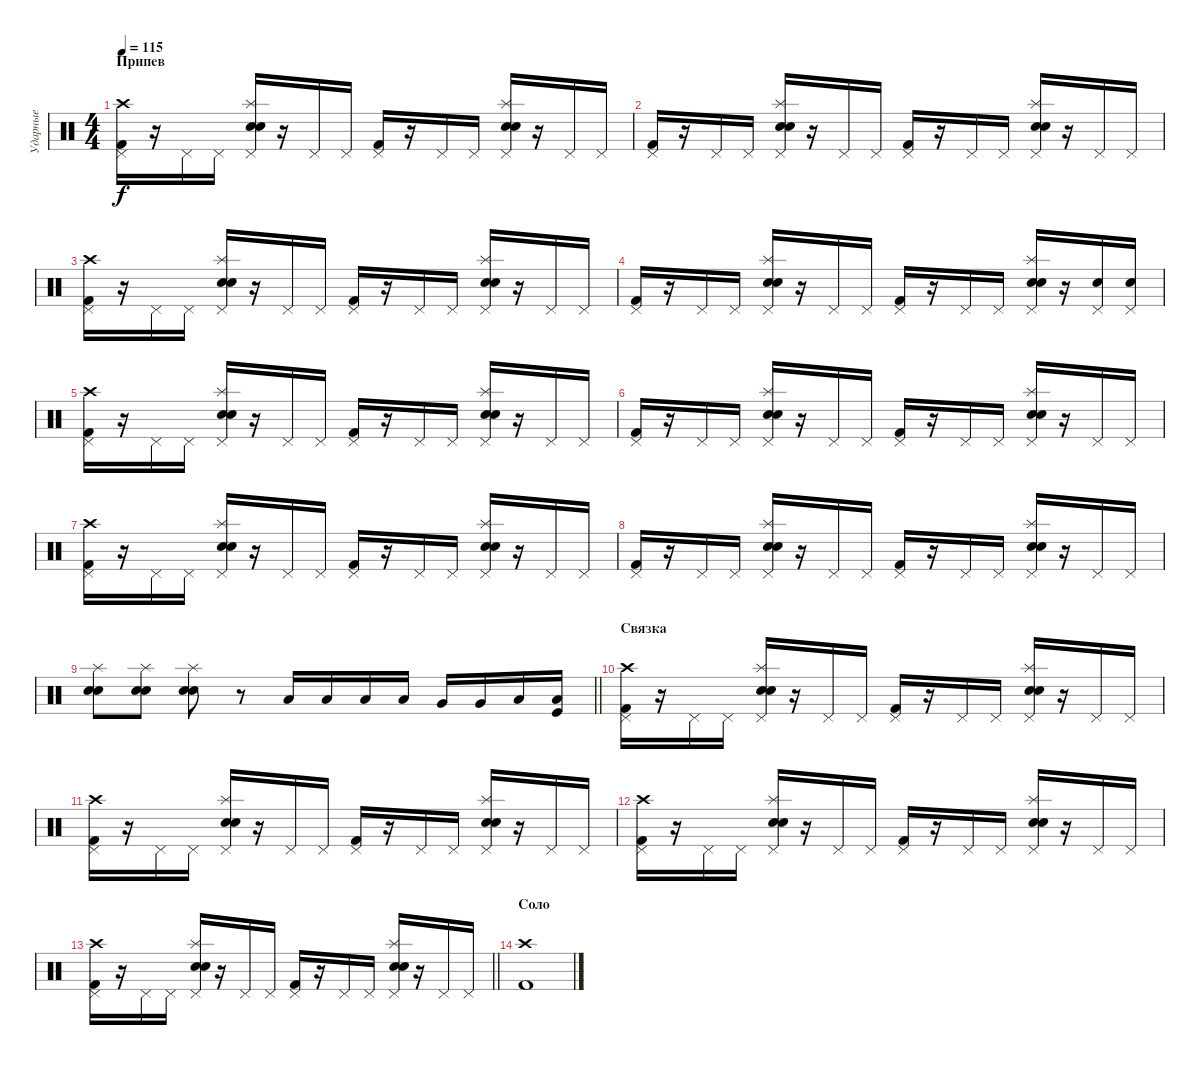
\track ("Ударные" "Ударные") {instrument percussion}
\staff {score}
\articulation defaults
\ts (4 4)
\section ("" "Припев")
\tempo 115
\clef neutral
\ks c
("Crash high (hit)" "Pedal Hi-Hat (hit)" "Kick (hit) 2").16{dy f} r.16 "Pedal Hi-Hat (hit)".16 "Pedal Hi-Hat (hit)".16 ("Splash (hit)" "Pedal Hi-Hat (hit)" "Electric Snare (hit)" "Snare (hit) 2").16 r.16 "Pedal Hi-Hat (hit)".16 "Pedal Hi-Hat (hit)".16 ("Pedal Hi-Hat (hit)" "Kick (hit) 2").16 r.16 "Pedal Hi-Hat (hit)".16 "Pedal Hi-Hat (hit)".16 ("Splash (hit)" "Pedal Hi-Hat (hit)" "Electric Snare (hit)" "Snare (hit) 2").16 r.16 "Pedal Hi-Hat (hit)".16 "Pedal Hi-Hat (hit)".16 |
("Pedal Hi-Hat (hit)" "Kick (hit) 2").16 r.16 "Pedal Hi-Hat (hit)".16 "Pedal Hi-Hat (hit)".16 ("Splash (hit)" "Pedal Hi-Hat (hit)" "Electric Snare (hit)" "Snare (hit) 2").16 r.16 "Pedal Hi-Hat (hit)".16 "Pedal Hi-Hat (hit)".16 ("Pedal Hi-Hat (hit)" "Kick (hit) 2").16 r.16 "Pedal Hi-Hat (hit)".16 "Pedal Hi-Hat (hit)".16 ("Splash (hit)" "Pedal Hi-Hat (hit)" "Electric Snare (hit)" "Snare (hit) 2").16 r.16 "Pedal Hi-Hat (hit)".16 "Pedal Hi-Hat (hit)".16 |
("Crash high (hit)" "Pedal Hi-Hat (hit)" "Kick (hit) 2").16 r.16 "Pedal Hi-Hat (hit)".16 "Pedal Hi-Hat (hit)".16 ("Splash (hit)" "Pedal Hi-Hat (hit)" "Electric Snare (hit)" "Snare (hit) 2").16 r.16 "Pedal Hi-Hat (hit)".16 "Pedal Hi-Hat (hit)".16 ("Pedal Hi-Hat (hit)" "Kick (hit) 2").16 r.16 "Pedal Hi-Hat (hit)".16 "Pedal Hi-Hat (hit)".16 ("Splash (hit)" "Pedal Hi-Hat (hit)" "Electric Snare (hit)" "Snare (hit) 2").16 r.16 "Pedal Hi-Hat (hit)".16 "Pedal Hi-Hat (hit)".16 |
("Pedal Hi-Hat (hit)" "Kick (hit) 2").16 r.16 "Pedal Hi-Hat (hit)".16 "Pedal Hi-Hat (hit)".16 ("Splash (hit)" "Pedal Hi-Hat (hit)" "Electric Snare (hit)" "Snare (hit) 2").16 r.16 "Pedal Hi-Hat (hit)".16 "Pedal Hi-Hat (hit)".16 ("Pedal Hi-Hat (hit)" "Kick (hit) 2").16 r.16 "Pedal Hi-Hat (hit)".16 "Pedal Hi-Hat (hit)".16 ("Splash (hit)" "Pedal Hi-Hat (hit)" "Electric Snare (hit)" "Snare (hit) 2").16 r.16 ("Pedal Hi-Hat (hit)" "Electric Snare (hit)").16 ("Pedal Hi-Hat (hit)" "Electric Snare (hit)").16 |
("Crash high (hit)" "Pedal Hi-Hat (hit)" "Kick (hit) 2").16 r.16 "Pedal Hi-Hat (hit)".16 "Pedal Hi-Hat (hit)".16 ("Splash (hit)" "Pedal Hi-Hat (hit)" "Electric Snare (hit)" "Snare (hit) 2").16 r.16 "Pedal Hi-Hat (hit)".16 "Pedal Hi-Hat (hit)".16 ("Pedal Hi-Hat (hit)" "Kick (hit) 2").16 r.16 "Pedal Hi-Hat (hit)".16 "Pedal Hi-Hat (hit)".16 ("Splash (hit)" "Pedal Hi-Hat (hit)" "Electric Snare (hit)" "Snare (hit) 2").16 r.16 "Pedal Hi-Hat (hit)".16 "Pedal Hi-Hat (hit)".16 |
("Pedal Hi-Hat (hit)" "Kick (hit) 2").16 r.16 "Pedal Hi-Hat (hit)".16 "Pedal Hi-Hat (hit)".16 ("Splash (hit)" "Pedal Hi-Hat (hit)" "Electric Snare (hit)" "Snare (hit) 2").16 r.16 "Pedal Hi-Hat (hit)".16 "Pedal Hi-Hat (hit)".16 ("Pedal Hi-Hat (hit)" "Kick (hit) 2").16 r.16 "Pedal Hi-Hat (hit)".16 "Pedal Hi-Hat (hit)".16 ("Splash (hit)" "Pedal Hi-Hat (hit)" "Electric Snare (hit)" "Snare (hit) 2").16 r.16 "Pedal Hi-Hat (hit)".16 "Pedal Hi-Hat (hit)".16 |
("Crash high (hit)" "Pedal Hi-Hat (hit)" "Kick (hit) 2").16 r.16 "Pedal Hi-Hat (hit)".16 "Pedal Hi-Hat (hit)".16 ("Splash (hit)" "Pedal Hi-Hat (hit)" "Electric Snare (hit)" "Snare (hit) 2").16 r.16 "Pedal Hi-Hat (hit)".16 "Pedal Hi-Hat (hit)".16 ("Pedal Hi-Hat (hit)" "Kick (hit) 2").16 r.16 "Pedal Hi-Hat (hit)".16 "Pedal Hi-Hat (hit)".16 ("Splash (hit)" "Pedal Hi-Hat (hit)" "Electric Snare (hit)" "Snare (hit) 2").16 r.16 "Pedal Hi-Hat (hit)".16 "Pedal Hi-Hat (hit)".16 |
("Pedal Hi-Hat (hit)" "Kick (hit) 2").16 r.16 "Pedal Hi-Hat (hit)".16 "Pedal Hi-Hat (hit)".16 ("Splash (hit)" "Pedal Hi-Hat (hit)" "Electric Snare (hit)" "Snare (hit) 2").16 r.16 "Pedal Hi-Hat (hit)".16 "Pedal Hi-Hat (hit)".16 ("Pedal Hi-Hat (hit)" "Kick (hit) 2").16 r.16 "Pedal Hi-Hat (hit)".16 "Pedal Hi-Hat (hit)".16 ("Splash (hit)" "Pedal Hi-Hat (hit)" "Electric Snare (hit)" "Snare (hit) 2").16 r.16 "Pedal Hi-Hat (hit)".16 "Pedal Hi-Hat (hit)".16 |
\barLineRight lightlight
("Splash (hit)" "Electric Snare (hit)" "Snare (hit) 2").8 ("Splash (hit)" "Electric Snare (hit)" "Snare (hit) 2").8 ("Splash (hit)" "Electric Snare (hit)" "Snare (hit) 2").8 r.8 "Low Tom (hit)".16 "Low Tom (hit)".16 "Low Tom (hit)".16 "Low Tom (hit)".16 "Very Low Tom (hit)".16 "Very Low Tom (hit)".16 "Low Floor Tom (hit)".16 ("Low Floor Tom (hit)" "Kick (hit)").16 |
\section ("" "Связка")
("Crash high (hit)" "Pedal Hi-Hat (hit)" "Kick (hit) 2").16 r.16 "Pedal Hi-Hat (hit)".16 "Pedal Hi-Hat (hit)".16 ("Splash (hit)" "Pedal Hi-Hat (hit)" "Electric Snare (hit)" "Snare (hit) 2").16 r.16 "Pedal Hi-Hat (hit)".16 "Pedal Hi-Hat (hit)".16 ("Pedal Hi-Hat (hit)" "Kick (hit) 2").16 r.16 "Pedal Hi-Hat (hit)".16 "Pedal Hi-Hat (hit)".16 ("Splash (hit)" "Pedal Hi-Hat (hit)" "Electric Snare (hit)" "Snare (hit) 2").16 r.16 "Pedal Hi-Hat (hit)".16 "Pedal Hi-Hat (hit)".16 |
("Crash high (hit)" "Pedal Hi-Hat (hit)" "Kick (hit) 2").16 r.16 "Pedal Hi-Hat (hit)".16 "Pedal Hi-Hat (hit)".16 ("Splash (hit)" "Pedal Hi-Hat (hit)" "Electric Snare (hit)" "Snare (hit) 2").16 r.16 "Pedal Hi-Hat (hit)".16 "Pedal Hi-Hat (hit)".16 ("Pedal Hi-Hat (hit)" "Kick (hit) 2").16 r.16 "Pedal Hi-Hat (hit)".16 "Pedal Hi-Hat (hit)".16 ("Splash (hit)" "Pedal Hi-Hat (hit)" "Electric Snare (hit)" "Snare (hit) 2").16 r.16 "Pedal Hi-Hat (hit)".16 "Pedal Hi-Hat (hit)".16 |
("Crash high (hit)" "Pedal Hi-Hat (hit)" "Kick (hit) 2").16 r.16 "Pedal Hi-Hat (hit)".16 "Pedal Hi-Hat (hit)".16 ("Splash (hit)" "Pedal Hi-Hat (hit)" "Electric Snare (hit)" "Snare (hit) 2").16 r.16 "Pedal Hi-Hat (hit)".16 "Pedal Hi-Hat (hit)".16 ("Pedal Hi-Hat (hit)" "Kick (hit) 2").16 r.16 "Pedal Hi-Hat (hit)".16 "Pedal Hi-Hat (hit)".16 ("Splash (hit)" "Pedal Hi-Hat (hit)" "Electric Snare (hit)" "Snare (hit) 2").16 r.16 "Pedal Hi-Hat (hit)".16 "Pedal Hi-Hat (hit)".16 |
\barLineRight lightlight
("Crash high (hit)" "Pedal Hi-Hat (hit)" "Kick (hit) 2").16 r.16 "Pedal Hi-Hat (hit)".16 "Pedal Hi-Hat (hit)".16 ("Splash (hit)" "Pedal Hi-Hat (hit)" "Electric Snare (hit)" "Snare (hit) 2").16 r.16 "Pedal Hi-Hat (hit)".16 "Pedal Hi-Hat (hit)".16 ("Pedal Hi-Hat (hit)" "Kick (hit) 2").16 r.16 "Pedal Hi-Hat (hit)".16 "Pedal Hi-Hat (hit)".16 ("Splash (hit)" "Pedal Hi-Hat (hit)" "Electric Snare (hit)" "Snare (hit) 2").16 r.16 "Pedal Hi-Hat (hit)".16 "Pedal Hi-Hat (hit)".16 |
\section ("" "Соло")
("Crash high (hit)" "Kick (hit) 2").1
